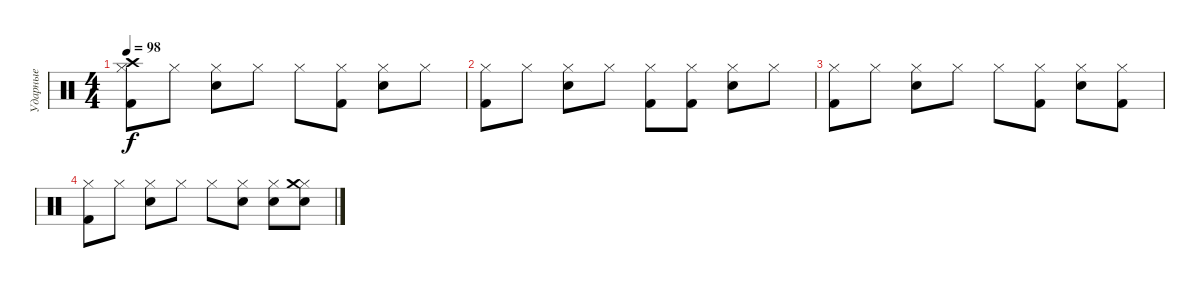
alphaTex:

\track ("Ударные" "Ударные") {mute instrument percussion}
\staff {score}
\articulation defaults
\ts (4 4)
\tempo 98
\clef neutral
\ks c
("Hi-Hat (closed)" "Crash high (hit)" "Kick (hit) 2").8{dy f} "Hi-Hat (closed)".8 ("Hi-Hat (closed)" "Snare (hit) 2").8 "Hi-Hat (closed)".8 "Hi-Hat (closed)".8 ("Hi-Hat (closed)" "Kick (hit) 2").8 ("Hi-Hat (closed)" "Snare (hit) 2").8 "Hi-Hat (closed)".8 |
("Hi-Hat (closed)" "Kick (hit) 2").8 "Hi-Hat (closed)".8 ("Hi-Hat (closed)" "Snare (hit) 2").8 "Hi-Hat (closed)".8 ("Hi-Hat (closed)" "Kick (hit) 2").8 ("Hi-Hat (closed)" "Kick (hit) 2").8 ("Hi-Hat (closed)" "Snare (hit) 2").8 "Hi-Hat (closed)".8 |
("Hi-Hat (closed)" "Kick (hit) 2").8 "Hi-Hat (closed)".8 ("Hi-Hat (closed)" "Snare (hit) 2").8 "Hi-Hat (closed)".8 "Hi-Hat (closed)".8 ("Hi-Hat (closed)" "Kick (hit) 2").8 ("Hi-Hat (closed)" "Snare (hit) 2").8 ("Hi-Hat (closed)" "Kick (hit) 2").8 |
("Hi-Hat (closed)" "Kick (hit) 2").8 "Hi-Hat (closed)".8 ("Hi-Hat (closed)" "Snare (hit) 2").8 "Hi-Hat (closed)".8 "Hi-Hat (closed)".8 ("Hi-Hat (closed)" "Snare (hit) 2").8 ("Hi-Hat (closed)" "Snare (hit) 2").8 ("Hi-Hat (closed)" "Snare (hit) 2" "Crash medium (hit)").8
